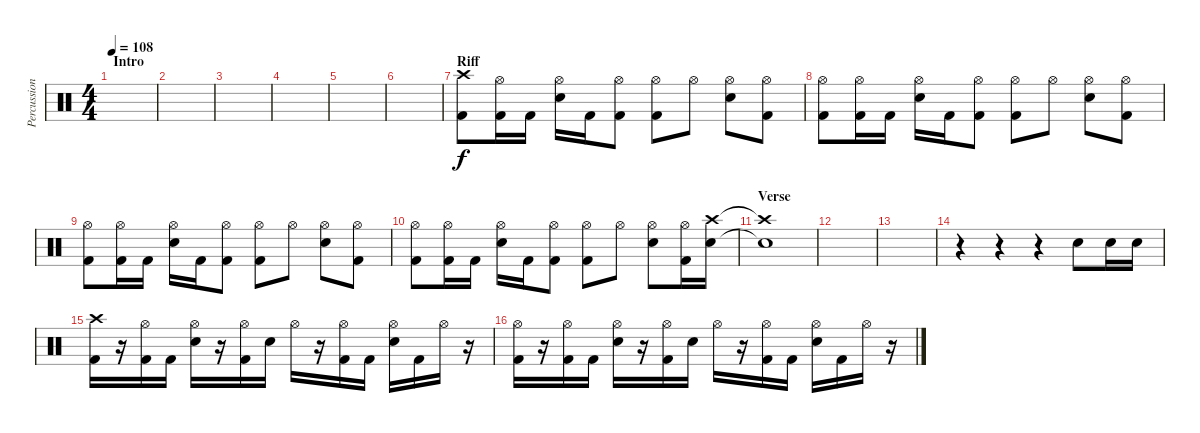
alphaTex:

\track ("Percussion" "Percussion") {instrument percussion}
\staff {score}
\articulation defaults
\ts (4 4)
\section ("" "Intro")
\tempo 108
\clef neutral
\ks c
|
|
|
|
|
|
\section ("" "Riff")
("Crash high (hit)" "Kick (hit) 2").8 ("Hi-Hat (open)" "Kick (hit) 2").16 "Kick (hit) 2".16 ("Hi-Hat (open)" "Snare (hit) 2").16 "Kick (hit) 2".16 ("Hi-Hat (open)" "Kick (hit) 2").8 ("Hi-Hat (open)" "Kick (hit) 2").8 "Hi-Hat (open)".8 ("Hi-Hat (open)" "Snare (hit) 2").8 ("Hi-Hat (open)" "Kick (hit) 2").8 |
("Hi-Hat (open)" "Kick (hit) 2").8 ("Hi-Hat (open)" "Kick (hit) 2").16 "Kick (hit) 2".16 ("Hi-Hat (open)" "Snare (hit) 2").16 "Kick (hit) 2".16 ("Hi-Hat (open)" "Kick (hit) 2").8 ("Hi-Hat (open)" "Kick (hit) 2").8 "Hi-Hat (open)".8 ("Hi-Hat (open)" "Snare (hit) 2").8 ("Hi-Hat (open)" "Kick (hit) 2").8 |
("Hi-Hat (open)" "Kick (hit) 2").8 ("Hi-Hat (open)" "Kick (hit) 2").16 "Kick (hit) 2".16 ("Hi-Hat (open)" "Snare (hit) 2").16 "Kick (hit) 2".16 ("Hi-Hat (open)" "Kick (hit) 2").8 ("Hi-Hat (open)" "Kick (hit) 2").8 "Hi-Hat (open)".8 ("Hi-Hat (open)" "Snare (hit) 2").8 ("Hi-Hat (open)" "Kick (hit) 2").8 |
("Hi-Hat (open)" "Kick (hit) 2").8 ("Hi-Hat (open)" "Kick (hit) 2").16 "Kick (hit) 2".16 ("Hi-Hat (open)" "Snare (hit) 2").16 "Kick (hit) 2".16 ("Hi-Hat (open)" "Kick (hit) 2").8 ("Hi-Hat (open)" "Kick (hit) 2").8 "Hi-Hat (open)".8 ("Hi-Hat (open)" "Snare (hit) 2").8 ("Hi-Hat (open)" "Kick (hit) 2").16 ("Crash high (hit)" "Snare (hit) 2").16 |
\section ("" "Verse")
("Crash high (hit)"{t} "Snare (hit) 2"{t}).1 |
|
|
r.4 r.4 r.4 "Snare (hit) 2".8 "Snare (hit) 2".16 "Snare (hit) 2".16 |
("Crash high (hit)" "Kick (hit) 2").16 r.16 ("Hi-Hat (open)" "Kick (hit) 2").16 "Kick (hit) 2".16 ("Hi-Hat (open)" "Snare (hit) 2").16 r.16 ("Hi-Hat (open)" "Kick (hit) 2").16 "Snare (hit) 2".16 "Hi-Hat (open)".16 r.16 ("Hi-Hat (open)" "Kick (hit) 2").16 "Kick (hit) 2".16 ("Hi-Hat (open)" "Snare (hit) 2").16 "Kick (hit) 2".16 "Hi-Hat (open)".16 r.16 |
("Hi-Hat (open)" "Kick (hit) 2").16 r.16 ("Hi-Hat (open)" "Kick (hit) 2").16 "Kick (hit) 2".16 ("Hi-Hat (open)" "Snare (hit) 2").16 r.16 ("Hi-Hat (open)" "Kick (hit) 2").16 "Snare (hit) 2".16 "Hi-Hat (open)".16 r.16 ("Hi-Hat (open)" "Kick (hit) 2").16 "Kick (hit) 2".16 ("Hi-Hat (open)" "Snare (hit) 2").16 "Kick (hit) 2".16 "Hi-Hat (open)".16 r.16
